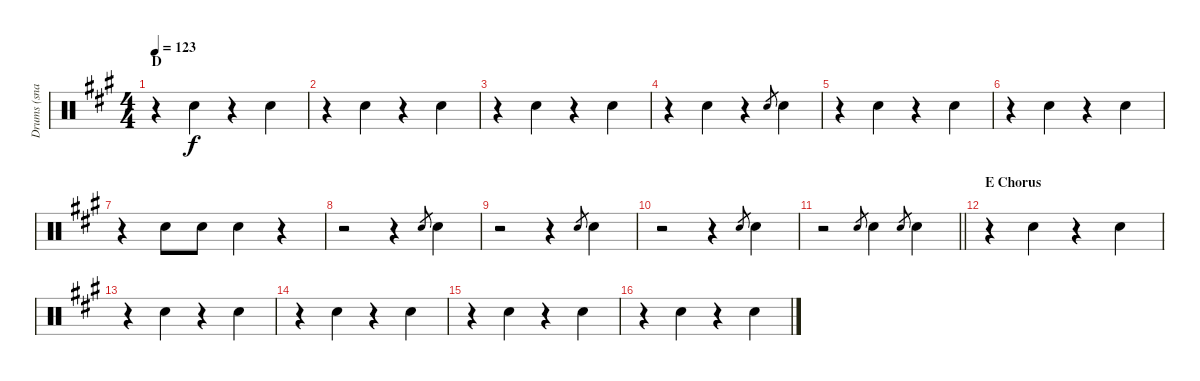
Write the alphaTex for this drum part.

\track ("Drums (snare)" "Drums (sna") {instrument percussion}
\staff {score}
\articulation defaults
\ts (4 4)
\section ("" "D")
\tempo 123
\clef neutral
\ks a
r.4{dy f} "Snare (hit) 2".4 r.4 "Snare (hit) 2".4 |
r.4 "Snare (hit) 2".4 r.4 "Snare (hit) 2".4 |
r.4 "Snare (hit) 2".4 r.4 "Snare (hit) 2".4 |
r.4 "Snare (hit) 2".4 r.4 "Snare (hit) 2".8{gr} "Snare (hit) 2".4 |
r.4 "Snare (hit) 2".4 r.4 "Snare (hit) 2".4 |
r.4 "Snare (hit) 2".4 r.4 "Snare (hit) 2".4 |
r.4 "Snare (hit) 2".8 "Snare (hit) 2".8 "Snare (hit) 2".4 r.4 |
r.2 r.4 "Snare (hit) 2".8{gr} "Snare (hit) 2".4 |
r.2 r.4 "Snare (hit) 2".8{gr} "Snare (hit) 2".4 |
r.2 r.4 "Snare (hit) 2".8{gr} "Snare (hit) 2".4 |
\barLineRight lightlight
r.2 "Snare (hit) 2".8{gr} "Snare (hit) 2".4 "Snare (hit) 2".8{gr} "Snare (hit) 2".4 |
\section ("" "E Chorus")
r.4 "Snare (hit) 2".4 r.4 "Snare (hit) 2".4 |
r.4 "Snare (hit) 2".4 r.4 "Snare (hit) 2".4 |
r.4 "Snare (hit) 2".4 r.4 "Snare (hit) 2".4 |
r.4 "Snare (hit) 2".4 r.4 "Snare (hit) 2".4 |
r.4 "Snare (hit) 2".4 r.4 "Snare (hit) 2".4
